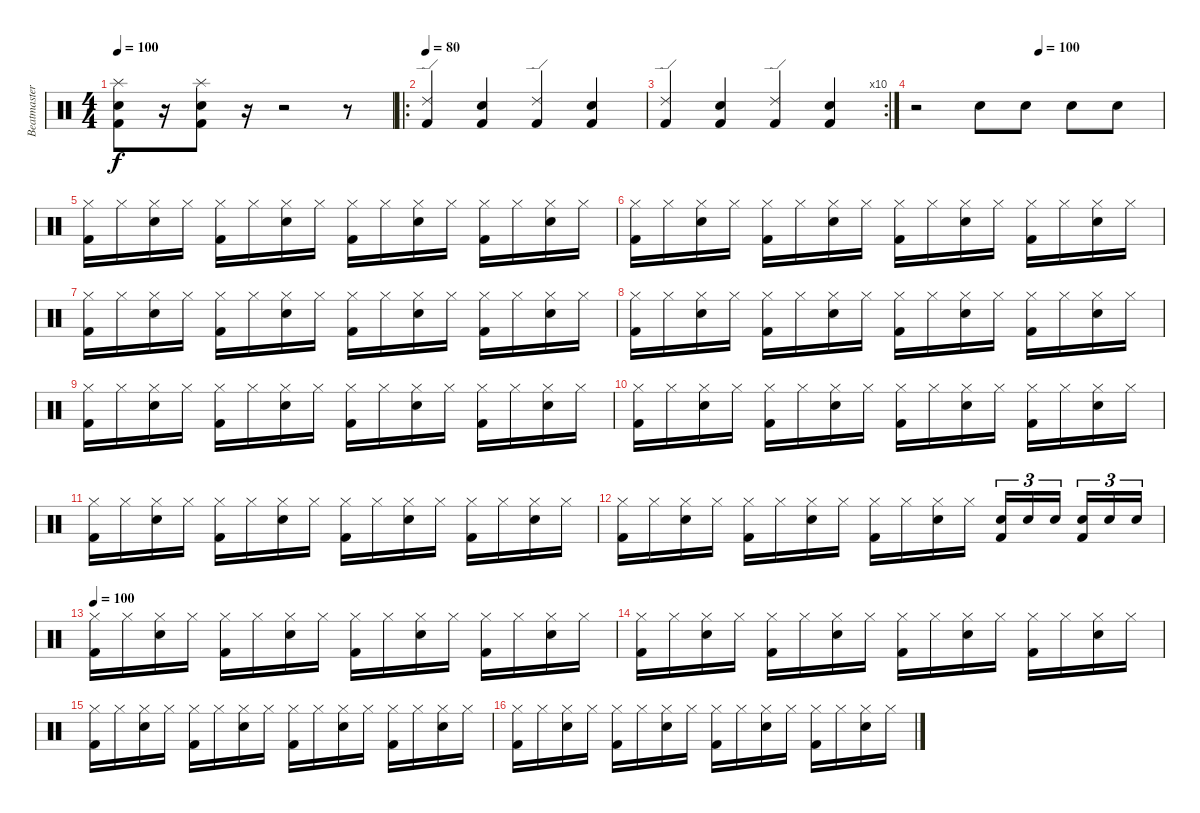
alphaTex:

\track ("Beatmaster V." "Beatmaster") {instrument percussion}
\staff {score}
\articulation defaults
\ts (4 4)
\tempo 100
\clef neutral
\ks c
("Splash (hit)" "Snare (hit) 2" "Kick (hit) 2").8{dy f} r.16 ("Splash (hit)" "Snare (hit) 2" "Kick (hit) 2").8 r.16 r.2 r.8 |
\ro
\tempo 80
("Ride (edge) 2" "Kick (hit) 2").4 ("Snare (hit) 2" "Kick (hit) 2").4 ("Ride (edge) 2" "Kick (hit) 2").4 ("Snare (hit) 2" "Kick (hit) 2").4 |
\rc 10
("Ride (edge) 2" "Kick (hit) 2").4 ("Snare (hit) 2" "Kick (hit) 2").4 ("Ride (edge) 2" "Kick (hit) 2").4 ("Snare (hit) 2" "Kick (hit) 2").4 |
\tempo (100 0.5)
r.2 "Snare (hit) 2".8 "Snare (hit) 2".8 "Snare (hit) 2".8 "Snare (hit) 2".8 |
("Hi-Hat (closed)" "Kick (hit) 2").16 "Hi-Hat (closed)".16 ("Hi-Hat (closed)" "Snare (hit) 2").16 "Hi-Hat (closed)".16 ("Hi-Hat (closed)" "Kick (hit) 2").16 "Hi-Hat (closed)".16 ("Hi-Hat (closed)" "Snare (hit) 2").16 "Hi-Hat (closed)".16 ("Hi-Hat (closed)" "Kick (hit) 2").16 "Hi-Hat (closed)".16 ("Hi-Hat (closed)" "Snare (hit) 2").16 "Hi-Hat (closed)".16 ("Hi-Hat (closed)" "Kick (hit) 2").16 "Hi-Hat (closed)".16 ("Hi-Hat (closed)" "Snare (hit) 2").16 "Hi-Hat (closed)".16 |
("Hi-Hat (closed)" "Kick (hit) 2").16 "Hi-Hat (closed)".16 ("Hi-Hat (closed)" "Snare (hit) 2").16 "Hi-Hat (closed)".16 ("Hi-Hat (closed)" "Kick (hit) 2").16 "Hi-Hat (closed)".16 ("Hi-Hat (closed)" "Snare (hit) 2").16 "Hi-Hat (closed)".16 ("Hi-Hat (closed)" "Kick (hit) 2").16 "Hi-Hat (closed)".16 ("Hi-Hat (closed)" "Snare (hit) 2").16 "Hi-Hat (closed)".16 ("Hi-Hat (closed)" "Kick (hit) 2").16 "Hi-Hat (closed)".16 ("Hi-Hat (closed)" "Snare (hit) 2").16 "Hi-Hat (closed)".16 |
("Hi-Hat (closed)" "Kick (hit) 2").16 "Hi-Hat (closed)".16 ("Hi-Hat (closed)" "Snare (hit) 2").16 "Hi-Hat (closed)".16 ("Hi-Hat (closed)" "Kick (hit) 2").16 "Hi-Hat (closed)".16 ("Hi-Hat (closed)" "Snare (hit) 2").16 "Hi-Hat (closed)".16 ("Hi-Hat (closed)" "Kick (hit) 2").16 "Hi-Hat (closed)".16 ("Hi-Hat (closed)" "Snare (hit) 2").16 "Hi-Hat (closed)".16 ("Hi-Hat (closed)" "Kick (hit) 2").16 "Hi-Hat (closed)".16 ("Hi-Hat (closed)" "Snare (hit) 2").16 "Hi-Hat (closed)".16 |
("Hi-Hat (closed)" "Kick (hit) 2").16 "Hi-Hat (closed)".16 ("Hi-Hat (closed)" "Snare (hit) 2").16 "Hi-Hat (closed)".16 ("Hi-Hat (closed)" "Kick (hit) 2").16 "Hi-Hat (closed)".16 ("Hi-Hat (closed)" "Snare (hit) 2").16 "Hi-Hat (closed)".16 ("Hi-Hat (closed)" "Kick (hit) 2").16 "Hi-Hat (closed)".16 ("Hi-Hat (closed)" "Snare (hit) 2").16 "Hi-Hat (closed)".16 ("Hi-Hat (closed)" "Kick (hit) 2").16 "Hi-Hat (closed)".16 ("Hi-Hat (closed)" "Snare (hit) 2").16 "Hi-Hat (closed)".16 |
("Hi-Hat (closed)" "Kick (hit) 2").16 "Hi-Hat (closed)".16 ("Hi-Hat (closed)" "Snare (hit) 2").16 "Hi-Hat (closed)".16 ("Hi-Hat (closed)" "Kick (hit) 2").16 "Hi-Hat (closed)".16 ("Hi-Hat (closed)" "Snare (hit) 2").16 "Hi-Hat (closed)".16 ("Hi-Hat (closed)" "Kick (hit) 2").16 "Hi-Hat (closed)".16 ("Hi-Hat (closed)" "Snare (hit) 2").16 "Hi-Hat (closed)".16 ("Hi-Hat (closed)" "Kick (hit) 2").16 "Hi-Hat (closed)".16 ("Hi-Hat (closed)" "Snare (hit) 2").16 "Hi-Hat (closed)".16 |
("Hi-Hat (closed)" "Kick (hit) 2").16 "Hi-Hat (closed)".16 ("Hi-Hat (closed)" "Snare (hit) 2").16 "Hi-Hat (closed)".16 ("Hi-Hat (closed)" "Kick (hit) 2").16 "Hi-Hat (closed)".16 ("Hi-Hat (closed)" "Snare (hit) 2").16 "Hi-Hat (closed)".16 ("Hi-Hat (closed)" "Kick (hit) 2").16 "Hi-Hat (closed)".16 ("Hi-Hat (closed)" "Snare (hit) 2").16 "Hi-Hat (closed)".16 ("Hi-Hat (closed)" "Kick (hit) 2").16 "Hi-Hat (closed)".16 ("Hi-Hat (closed)" "Snare (hit) 2").16 "Hi-Hat (closed)".16 |
("Hi-Hat (closed)" "Kick (hit) 2").16 "Hi-Hat (closed)".16 ("Hi-Hat (closed)" "Snare (hit) 2").16 "Hi-Hat (closed)".16 ("Hi-Hat (closed)" "Kick (hit) 2").16 "Hi-Hat (closed)".16 ("Hi-Hat (closed)" "Snare (hit) 2").16 "Hi-Hat (closed)".16 ("Hi-Hat (closed)" "Kick (hit) 2").16 "Hi-Hat (closed)".16 ("Hi-Hat (closed)" "Snare (hit) 2").16 "Hi-Hat (closed)".16 ("Hi-Hat (closed)" "Kick (hit) 2").16 "Hi-Hat (closed)".16 ("Hi-Hat (closed)" "Snare (hit) 2").16 "Hi-Hat (closed)".16 |
("Hi-Hat (closed)" "Kick (hit) 2").16 "Hi-Hat (closed)".16 ("Hi-Hat (closed)" "Snare (hit) 2").16 "Hi-Hat (closed)".16 ("Hi-Hat (closed)" "Kick (hit) 2").16 "Hi-Hat (closed)".16 ("Hi-Hat (closed)" "Snare (hit) 2").16 "Hi-Hat (closed)".16 ("Hi-Hat (closed)" "Kick (hit) 2").16 "Hi-Hat (closed)".16 ("Hi-Hat (closed)" "Snare (hit) 2").16 "Hi-Hat (closed)".16 ("Snare (hit) 2" "Kick (hit) 2").16{tu (3 2)} "Snare (hit) 2".16{tu (3 2)} "Snare (hit) 2".16{tu (3 2)} ("Snare (hit) 2" "Kick (hit) 2").16{tu (3 2)} "Snare (hit) 2".16{tu (3 2)} "Snare (hit) 2".16{tu (3 2)} |
\tempo 100
("Hi-Hat (closed)" "Kick (hit) 2").16 "Hi-Hat (closed)".16 ("Hi-Hat (closed)" "Snare (hit) 2").16 "Hi-Hat (closed)".16 ("Hi-Hat (closed)" "Kick (hit) 2").16 "Hi-Hat (closed)".16 ("Hi-Hat (closed)" "Snare (hit) 2").16 "Hi-Hat (closed)".16 ("Hi-Hat (closed)" "Kick (hit) 2").16 "Hi-Hat (closed)".16 ("Hi-Hat (closed)" "Snare (hit) 2").16 "Hi-Hat (closed)".16 ("Hi-Hat (closed)" "Kick (hit) 2").16 "Hi-Hat (closed)".16 ("Hi-Hat (closed)" "Snare (hit) 2").16 "Hi-Hat (closed)".16 |
("Hi-Hat (closed)" "Kick (hit) 2").16 "Hi-Hat (closed)".16 ("Hi-Hat (closed)" "Snare (hit) 2").16 "Hi-Hat (closed)".16 ("Hi-Hat (closed)" "Kick (hit) 2").16 "Hi-Hat (closed)".16 ("Hi-Hat (closed)" "Snare (hit) 2").16 "Hi-Hat (closed)".16 ("Hi-Hat (closed)" "Kick (hit) 2").16 "Hi-Hat (closed)".16 ("Hi-Hat (closed)" "Snare (hit) 2").16 "Hi-Hat (closed)".16 ("Hi-Hat (closed)" "Kick (hit) 2").16 "Hi-Hat (closed)".16 ("Hi-Hat (closed)" "Snare (hit) 2").16 "Hi-Hat (closed)".16 |
("Hi-Hat (closed)" "Kick (hit) 2").16 "Hi-Hat (closed)".16 ("Hi-Hat (closed)" "Snare (hit) 2").16 "Hi-Hat (closed)".16 ("Hi-Hat (closed)" "Kick (hit) 2").16 "Hi-Hat (closed)".16 ("Hi-Hat (closed)" "Snare (hit) 2").16 "Hi-Hat (closed)".16 ("Hi-Hat (closed)" "Kick (hit) 2").16 "Hi-Hat (closed)".16 ("Hi-Hat (closed)" "Snare (hit) 2").16 "Hi-Hat (closed)".16 ("Hi-Hat (closed)" "Kick (hit) 2").16 "Hi-Hat (closed)".16 ("Hi-Hat (closed)" "Snare (hit) 2").16 "Hi-Hat (closed)".16 |
("Hi-Hat (closed)" "Kick (hit) 2").16 "Hi-Hat (closed)".16 ("Hi-Hat (closed)" "Snare (hit) 2").16 "Hi-Hat (closed)".16 ("Hi-Hat (closed)" "Kick (hit) 2").16 "Hi-Hat (closed)".16 ("Hi-Hat (closed)" "Snare (hit) 2").16 "Hi-Hat (closed)".16 ("Hi-Hat (closed)" "Kick (hit) 2").16 "Hi-Hat (closed)".16 ("Hi-Hat (closed)" "Snare (hit) 2").16 "Hi-Hat (closed)".16 ("Hi-Hat (closed)" "Kick (hit) 2").16 "Hi-Hat (closed)".16 ("Hi-Hat (closed)" "Snare (hit) 2").16 "Hi-Hat (closed)".16
